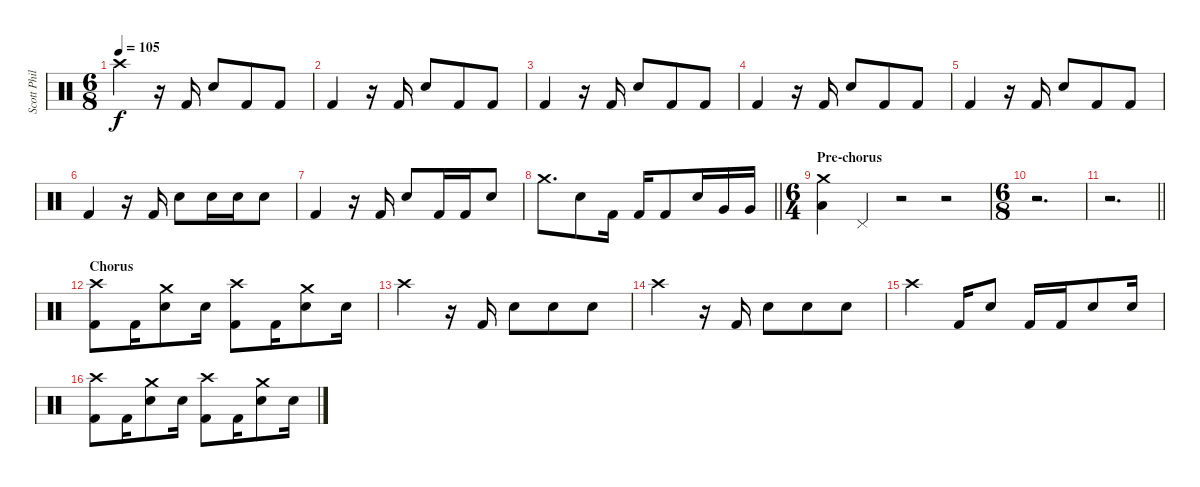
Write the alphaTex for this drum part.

\track ("Scott Phillips (Drums)" "Scott Phil") {instrument percussion}
\staff {score}
\articulation defaults
\ts (6 8)
\tempo 105
\clef neutral
\ks c "Crash high (hit)".4{dy f}
r.16 "Kick (hit) 2".16 "Electric Snare (hit)".8 "Kick (hit) 2".8 "Kick (hit) 2".8 |
"Kick (hit) 2".4 r.16 "Kick (hit) 2".16 "Electric Snare (hit)".8 "Kick (hit) 2".8 "Kick (hit) 2".8 |
"Kick (hit) 2".4 r.16 "Kick (hit) 2".16 "Electric Snare (hit)".8 "Kick (hit) 2".8 "Kick (hit) 2".8 |
"Kick (hit) 2".4 r.16 "Kick (hit) 2".16 "Electric Snare (hit)".8 "Kick (hit) 2".8 "Kick (hit) 2".8 |
"Kick (hit) 2".4 r.16 "Kick (hit) 2".16 "Electric Snare (hit)".8 "Kick (hit) 2".8 "Kick (hit) 2".8 |
"Kick (hit) 2".4 r.16 "Kick (hit) 2".16 "Electric Snare (hit)".8 "Electric Snare (hit)".16 "Electric Snare (hit)".16 "Electric Snare (hit)".8 |
"Kick (hit) 2".4 r.16 "Kick (hit) 2".16 "Electric Snare (hit)".8 "Kick (hit) 2".16 "Kick (hit) 2".16 "Electric Snare (hit)".8 |
\barLineRight lightlight "Crash medium (hit)".8{d} "Electric Snare (hit)".8 "Kick (hit) 2".16 "Kick (hit) 2".16 "Kick (hit) 2".8 "Electric Snare (hit)".16 "Very Low Tom (hit)".16 "Very Low Tom (hit)".16
|
\ts (6 4)
\section ("" "Pre-chorus")
("Crash medium (hit)" "Low Floor Tom (hit)").4 "Pedal Hi-Hat (hit)".4 r.2 r.2 |
\ts (6 8)
r.2{d} |
\barLineRight lightlight
r.2{d} |
\section ("" "Chorus")
("Crash high (hit)" "Kick (hit) 2").8 "Kick (hit) 2".16 ("Crash medium (hit)" "Electric Snare (hit)").8 "Electric Snare (hit)".16 ("Crash high (hit)" "Kick (hit) 2").8 "Kick (hit) 2".16 ("Crash medium (hit)" "Electric Snare (hit)").8 "Electric Snare (hit)".16 |
"Crash high (hit)".4 r.16 "Kick (hit) 2".16 "Electric Snare (hit)".8 "Electric Snare (hit)".8 "Electric Snare (hit)".8 |
"Crash high (hit)".4 r.16 "Kick (hit) 2".16 "Electric Snare (hit)".8 "Electric Snare (hit)".8 "Electric Snare (hit)".8 |
"Crash high (hit)".4 "Kick (hit) 2".16 "Electric Snare (hit)".8 "Kick (hit) 2".16 "Kick (hit) 2".16 "Electric Snare (hit)".8 "Electric Snare (hit)".16 |
("Crash high (hit)" "Kick (hit) 2").8 "Kick (hit) 2".16 ("Crash medium (hit)" "Electric Snare (hit)").8 "Electric Snare (hit)".16 ("Crash high (hit)" "Kick (hit) 2").8 "Kick (hit) 2".16 ("Crash medium (hit)" "Electric Snare (hit)").8 "Electric Snare (hit)".16
